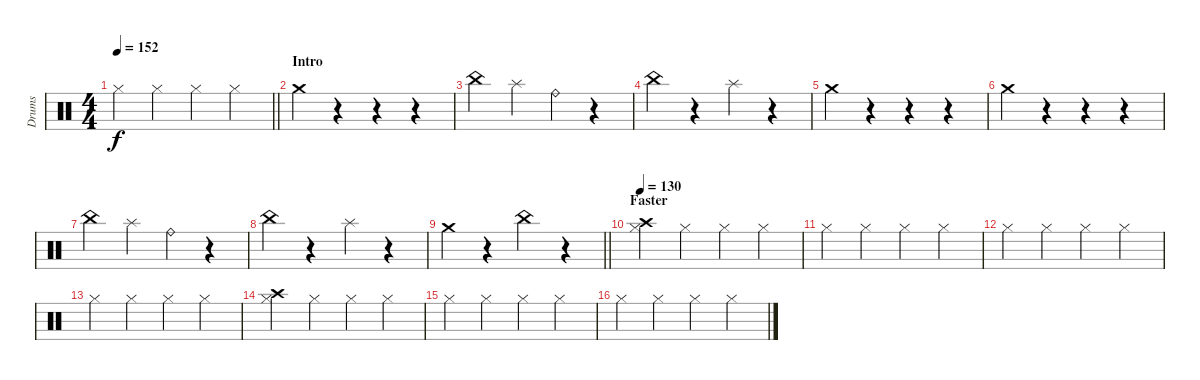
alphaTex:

\track ("Drums" "Drums") {instrument percussion}
\staff {score}
\articulation defaults
\ts (4 4)
\tempo 152
\tempo 125
\tempo 152
\clef neutral
\barLineRight lightlight
\ks c "Hi-Hat (closed)".4{dy f} "Hi-Hat (closed)".4 "Hi-Hat (closed)".4 "Hi-Hat (closed)".4
|
\section ("" "Intro")
"Crash medium (hit)".4 r.4 r.4 r.4 |
"China (hit)".4 "Splash (hit)".4 "Ride (bell)".4 r.4 |
"China (hit)".4 r.4 "Splash (hit)".4 r.4 |
"Crash medium (hit)".4 r.4 r.4 r.4 |
"Crash medium (hit)".4 r.4 r.4 r.4 |
"China (hit)".4 "Splash (hit)".4 "Ride (bell)".4 r.4 |
"China (hit)".4 r.4 "Splash (hit)".4 r.4 |
\barLineRight lightlight "Crash medium (hit)".4
r.4 "China (hit)".4 r.4 |
\section ("" "Faster")
\tempo 130
("Crash high (hit)" "Hi-Hat (closed)").4 "Hi-Hat (closed)".4 "Hi-Hat (closed)".4 "Hi-Hat (closed)".4 |
"Hi-Hat (closed)".4 "Hi-Hat (closed)".4 "Hi-Hat (closed)".4 "Hi-Hat (closed)".4 |
"Hi-Hat (closed)".4 "Hi-Hat (closed)".4 "Hi-Hat (closed)".4 "Hi-Hat (closed)".4 |
"Hi-Hat (closed)".4 "Hi-Hat (closed)".4 "Hi-Hat (closed)".4 "Hi-Hat (closed)".4 |
("Crash high (hit)" "Hi-Hat (closed)").4 "Hi-Hat (closed)".4 "Hi-Hat (closed)".4 "Hi-Hat (closed)".4 |
"Hi-Hat (closed)".4 "Hi-Hat (closed)".4 "Hi-Hat (closed)".4 "Hi-Hat (closed)".4 |
"Hi-Hat (closed)".4 "Hi-Hat (closed)".4 "Hi-Hat (closed)".4 "Hi-Hat (closed)".4
